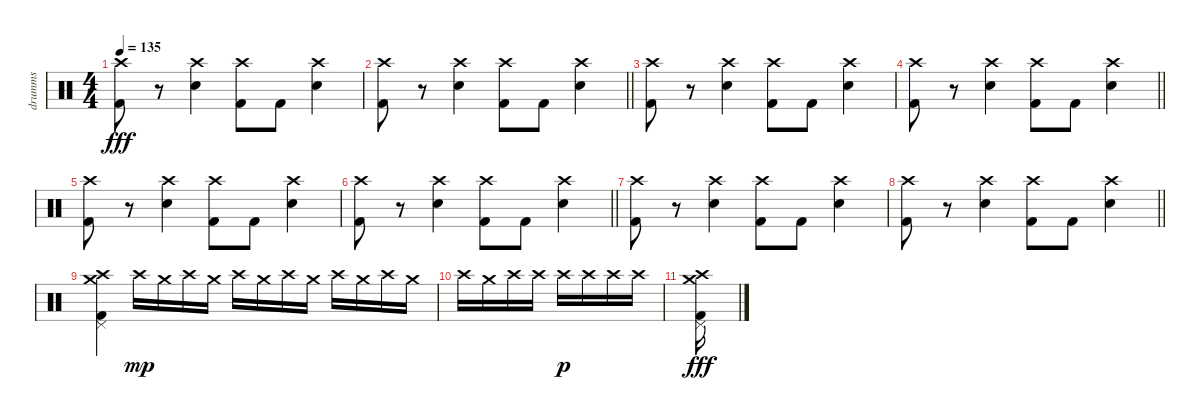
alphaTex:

\track ("drumms" "drumms") {instrument percussion}
\staff
\articulation defaults
\ts (4 4)
\tempo 135
\clef neutral
\ks c
("Crash high (hit)" "Kick (hit) 2").8{dy fff} r.8 ("Crash high (hit)" "Snare (hit) 2").4 ("Crash high (hit)" "Kick (hit) 2").8 "Kick (hit) 2".8 ("Crash high (hit)" "Snare (hit) 2").4 |
\barLineRight lightlight
("Crash high (hit)" "Kick (hit) 2").8 r.8 ("Crash high (hit)" "Snare (hit) 2").4 ("Crash high (hit)" "Kick (hit) 2").8 "Kick (hit) 2".8 ("Crash high (hit)" "Snare (hit) 2").4 |
("Crash high (hit)" "Kick (hit) 2").8 r.8 ("Crash high (hit)" "Snare (hit) 2").4 ("Crash high (hit)" "Kick (hit) 2").8 "Kick (hit) 2".8 ("Crash high (hit)" "Snare (hit) 2").4 |
\barLineRight lightlight
("Crash high (hit)" "Kick (hit) 2").8 r.8 ("Crash high (hit)" "Snare (hit) 2").4 ("Crash high (hit)" "Kick (hit) 2").8 "Kick (hit) 2".8 ("Crash high (hit)" "Snare (hit) 2").4 |
("Crash high (hit)" "Kick (hit) 2").8 r.8 ("Crash high (hit)" "Snare (hit) 2").4 ("Crash high (hit)" "Kick (hit) 2").8 "Kick (hit) 2".8 ("Crash high (hit)" "Snare (hit) 2").4 |
\barLineRight lightlight
("Crash high (hit)" "Kick (hit) 2").8 r.8 ("Crash high (hit)" "Snare (hit) 2").4 ("Crash high (hit)" "Kick (hit) 2").8 "Kick (hit) 2".8 ("Crash high (hit)" "Snare (hit) 2").4 |
("Crash high (hit)" "Kick (hit) 2").8 r.8 ("Crash high (hit)" "Snare (hit) 2").4 ("Crash high (hit)" "Kick (hit) 2").8 "Kick (hit) 2".8 ("Crash high (hit)" "Snare (hit) 2").4 |
\barLineRight lightlight
("Crash high (hit)" "Kick (hit) 2").8 r.8 ("Crash high (hit)" "Snare (hit) 2").4 ("Crash high (hit)" "Kick (hit) 2").8 "Kick (hit) 2".8 ("Crash high (hit)" "Snare (hit) 2").4 |
("Pedal Hi-Hat (hit)" "Crash high (hit)" "Crash medium (hit)" "Kick (hit) 2").4 "Crash high (hit)".16{dy mp} "Crash medium (hit)".16 "Crash high (hit)".16 "Crash medium (hit)".16 "Crash high (hit)".16 "Crash medium (hit)".16 "Crash high (hit)".16 "Crash medium (hit)".16 "Crash high (hit)".16 "Crash medium (hit)".16 "Crash high (hit)".16 "Crash medium (hit)".16 |
"Crash high (hit)".16 "Crash medium (hit)".16 "Crash high (hit)".16 "Crash high (hit)".16 "Crash high (hit)".16{dy p} "Crash high (hit)".16 "Crash high (hit)".16 "Crash high (hit)".16 |
("Pedal Hi-Hat (hit)" "Kick (hit) 2" "Crash medium (hit)" "Crash high (hit)").16{dy fff}
